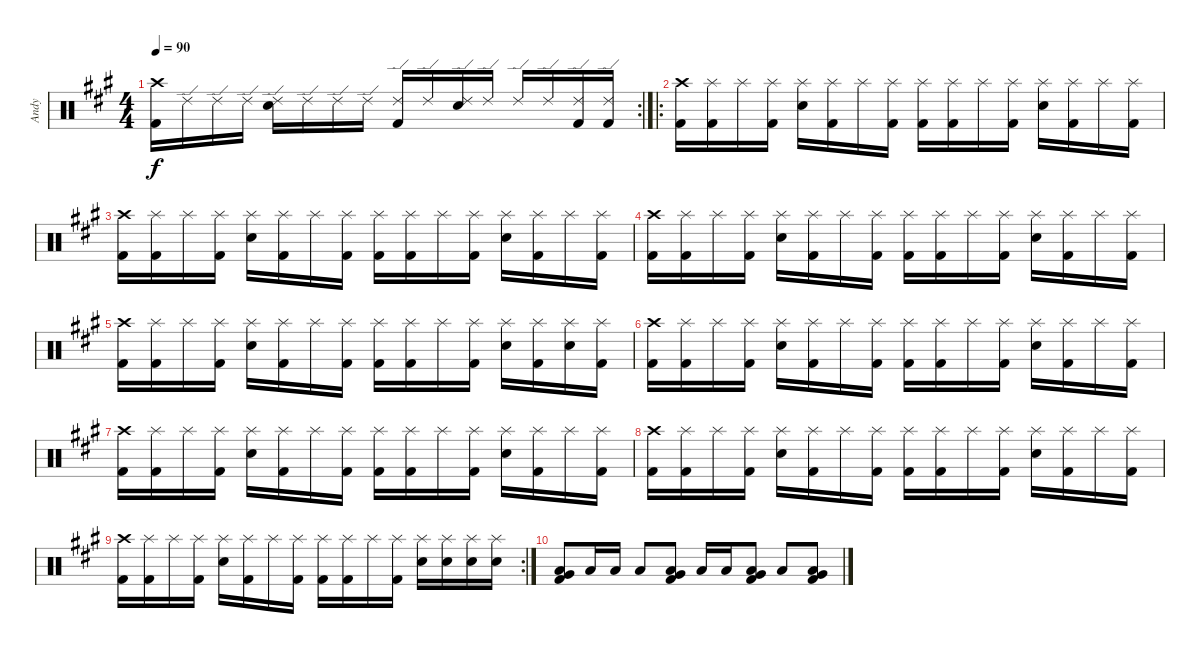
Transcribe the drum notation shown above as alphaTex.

\track ("Andy" "Andy") {instrument percussion}
\staff {score}
\articulation defaults
\rc 2
\ts (4 4)
\tempo 90
\clef neutral
\ks f#minor
("Crash high (hit)" "Kick (hit) 2").16{dy f} "Ride (edge) 2".16 "Ride (edge) 2".16 "Ride (edge) 2".16 ("Ride (edge) 2" "Snare (hit) 2").16 "Ride (edge) 2".16 "Ride (edge) 2".16 "Ride (edge) 2".16 ("Ride (edge) 2" "Kick (hit) 2").16 "Ride (edge) 2".16 ("Ride (edge) 2" "Snare (hit) 2").16 "Ride (edge) 2".16 "Ride (edge) 2".16 "Ride (edge) 2".16 ("Ride (edge) 2" "Kick (hit) 2").16 ("Ride (edge) 2" "Kick (hit) 2").16 |
\ro
("Crash high (hit)" "Kick (hit) 2").16 ("Splash (hit)" "Kick (hit) 2").16 "Splash (hit)".16 ("Splash (hit)" "Kick (hit) 2").16 ("Splash (hit)" "Snare (hit) 2").16 ("Splash (hit)" "Kick (hit) 2").16 "Splash (hit)".16 ("Splash (hit)" "Kick (hit) 2").16 ("Splash (hit)" "Kick (hit) 2").16 ("Splash (hit)" "Kick (hit) 2").16 "Splash (hit)".16 ("Splash (hit)" "Kick (hit) 2").16 ("Splash (hit)" "Snare (hit) 2").16 ("Splash (hit)" "Kick (hit) 2").16 "Splash (hit)".16 ("Splash (hit)" "Kick (hit) 2").16 |
("Crash high (hit)" "Kick (hit) 2").16 ("Splash (hit)" "Kick (hit) 2").16 "Splash (hit)".16 ("Splash (hit)" "Kick (hit) 2").16 ("Splash (hit)" "Snare (hit) 2").16 ("Splash (hit)" "Kick (hit) 2").16 "Splash (hit)".16 ("Splash (hit)" "Kick (hit) 2").16 ("Splash (hit)" "Kick (hit) 2").16 ("Splash (hit)" "Kick (hit) 2").16 "Splash (hit)".16 ("Splash (hit)" "Kick (hit) 2").16 ("Splash (hit)" "Snare (hit) 2").16 ("Splash (hit)" "Kick (hit) 2").16 "Splash (hit)".16 ("Splash (hit)" "Kick (hit) 2").16 |
("Crash high (hit)" "Kick (hit) 2").16 ("Splash (hit)" "Kick (hit) 2").16 "Splash (hit)".16 ("Splash (hit)" "Kick (hit) 2").16 ("Splash (hit)" "Snare (hit) 2").16 ("Splash (hit)" "Kick (hit) 2").16 "Splash (hit)".16 ("Splash (hit)" "Kick (hit) 2").16 ("Splash (hit)" "Kick (hit) 2").16 ("Splash (hit)" "Kick (hit) 2").16 "Splash (hit)".16 ("Splash (hit)" "Kick (hit) 2").16 ("Splash (hit)" "Snare (hit) 2").16 ("Splash (hit)" "Kick (hit) 2").16 "Splash (hit)".16 ("Splash (hit)" "Kick (hit) 2").16 |
("Crash high (hit)" "Kick (hit) 2").16 ("Splash (hit)" "Kick (hit) 2").16 "Splash (hit)".16 ("Splash (hit)" "Kick (hit) 2").16 ("Splash (hit)" "Snare (hit) 2").16 ("Splash (hit)" "Kick (hit) 2").16 "Splash (hit)".16 ("Splash (hit)" "Kick (hit) 2").16 ("Splash (hit)" "Kick (hit) 2").16 ("Splash (hit)" "Kick (hit) 2").16 "Splash (hit)".16 ("Splash (hit)" "Kick (hit) 2").16 ("Splash (hit)" "Snare (hit) 2").16 ("Splash (hit)" "Kick (hit) 2").16 ("Splash (hit)" "Snare (hit) 2").16 ("Splash (hit)" "Kick (hit) 2").16 |
("Crash high (hit)" "Kick (hit) 2").16 ("Splash (hit)" "Kick (hit) 2").16 "Splash (hit)".16 ("Splash (hit)" "Kick (hit) 2").16 ("Splash (hit)" "Snare (hit) 2").16 ("Splash (hit)" "Kick (hit) 2").16 "Splash (hit)".16 ("Splash (hit)" "Kick (hit) 2").16 ("Splash (hit)" "Kick (hit) 2").16 ("Splash (hit)" "Kick (hit) 2").16 "Splash (hit)".16 ("Splash (hit)" "Kick (hit) 2").16 ("Splash (hit)" "Snare (hit) 2").16 ("Splash (hit)" "Kick (hit) 2").16 "Splash (hit)".16 ("Splash (hit)" "Kick (hit) 2").16 |
("Crash high (hit)" "Kick (hit) 2").16 ("Splash (hit)" "Kick (hit) 2").16 "Splash (hit)".16 ("Splash (hit)" "Kick (hit) 2").16 ("Splash (hit)" "Snare (hit) 2").16 ("Splash (hit)" "Kick (hit) 2").16 "Splash (hit)".16 ("Splash (hit)" "Kick (hit) 2").16 ("Splash (hit)" "Kick (hit) 2").16 ("Splash (hit)" "Kick (hit) 2").16 "Splash (hit)".16 ("Splash (hit)" "Kick (hit) 2").16 ("Splash (hit)" "Snare (hit) 2").16 ("Splash (hit)" "Kick (hit) 2").16 "Splash (hit)".16 ("Splash (hit)" "Kick (hit) 2").16 |
("Crash high (hit)" "Kick (hit) 2").16 ("Splash (hit)" "Kick (hit) 2").16 "Splash (hit)".16 ("Splash (hit)" "Kick (hit) 2").16 ("Splash (hit)" "Snare (hit) 2").16 ("Splash (hit)" "Kick (hit) 2").16 "Splash (hit)".16 ("Splash (hit)" "Kick (hit) 2").16 ("Splash (hit)" "Kick (hit) 2").16 ("Splash (hit)" "Kick (hit) 2").16 "Splash (hit)".16 ("Splash (hit)" "Kick (hit) 2").16 ("Splash (hit)" "Snare (hit) 2").16 ("Splash (hit)" "Kick (hit) 2").16 "Splash (hit)".16 ("Splash (hit)" "Kick (hit) 2").16 |
\rc 2
("Crash high (hit)" "Kick (hit) 2").16 ("Splash (hit)" "Kick (hit) 2").16 "Splash (hit)".16 ("Splash (hit)" "Kick (hit) 2").16 ("Splash (hit)" "Snare (hit) 2").16 ("Splash (hit)" "Kick (hit) 2").16 "Splash (hit)".16 ("Splash (hit)" "Kick (hit) 2").16 ("Splash (hit)" "Kick (hit) 2").16 ("Splash (hit)" "Kick (hit) 2").16 "Splash (hit)".16 ("Splash (hit)" "Kick (hit) 2").16 ("Splash (hit)" "Snare (hit) 2").16 ("Splash (hit)" "Snare (hit) 2").16 ("Splash (hit)" "Snare (hit) 2").16 ("Splash (hit)" "Snare (hit) 2").16 |
("Low Floor Tom (hit)" "Very Low Tom (hit)" "Kick (hit) 2").8 "Low Floor Tom (hit)".16 "Low Floor Tom (hit)".16 "Low Floor Tom (hit)".8 ("Low Floor Tom (hit)" "Very Low Tom (hit)" "Kick (hit) 2").8 "Low Floor Tom (hit)".16 "Low Floor Tom (hit)".16 ("Low Floor Tom (hit)" "Very Low Tom (hit)" "Kick (hit) 2").8 "Low Floor Tom (hit)".8 ("Low Floor Tom (hit)" "Very Low Tom (hit)" "Kick (hit) 2").8
